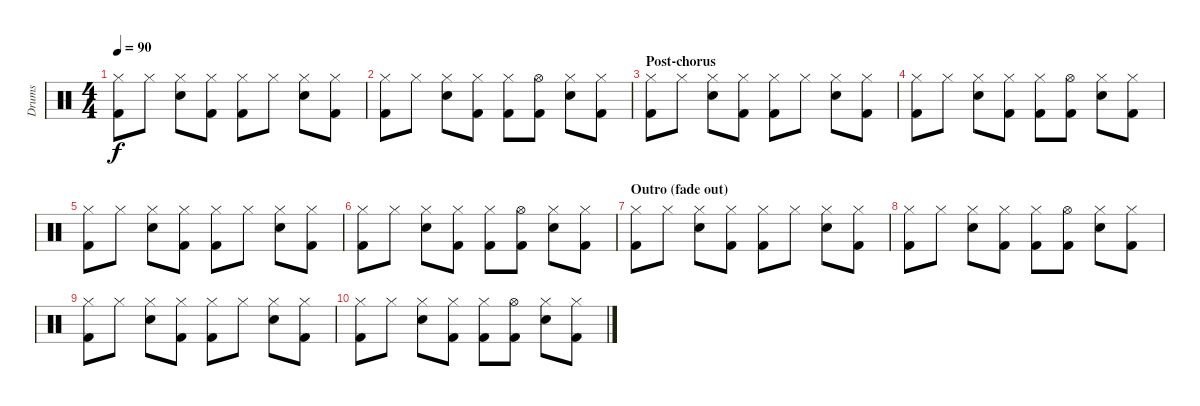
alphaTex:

\track ("Drums" "Drums") {instrument percussion}
\staff {score}
\articulation defaults
\ts (4 4)
\tempo 90
\clef neutral
\ks c
("Hi-Hat (closed)" "Kick (hit) 2").8{dy f} "Hi-Hat (closed)".8 ("Hi-Hat (closed)" "Electric Snare (hit)").8 ("Hi-Hat (closed)" "Kick (hit) 2").8 ("Hi-Hat (closed)" "Kick (hit) 2").8 "Hi-Hat (closed)".8 ("Hi-Hat (closed)" "Electric Snare (hit)").8 ("Hi-Hat (closed)" "Kick (hit) 2").8 |
("Hi-Hat (closed)" "Kick (hit) 2").8 "Hi-Hat (closed)".8 ("Hi-Hat (closed)" "Electric Snare (hit)").8 ("Hi-Hat (closed)" "Kick (hit) 2").8 ("Hi-Hat (closed)" "Kick (hit) 2").8 ("Hi-Hat (open)" "Kick (hit) 2").8 ("Hi-Hat (closed)" "Electric Snare (hit)").8 ("Hi-Hat (closed)" "Kick (hit) 2").8 |
\section ("" "Post-chorus")
("Hi-Hat (closed)" "Kick (hit) 2").8 "Hi-Hat (closed)".8 ("Hi-Hat (closed)" "Electric Snare (hit)").8 ("Hi-Hat (closed)" "Kick (hit) 2").8 ("Hi-Hat (closed)" "Kick (hit) 2").8 "Hi-Hat (closed)".8 ("Hi-Hat (closed)" "Electric Snare (hit)").8 ("Hi-Hat (closed)" "Kick (hit) 2").8 |
("Hi-Hat (closed)" "Kick (hit) 2").8 "Hi-Hat (closed)".8 ("Hi-Hat (closed)" "Electric Snare (hit)").8 ("Hi-Hat (closed)" "Kick (hit) 2").8 ("Hi-Hat (closed)" "Kick (hit) 2").8 ("Hi-Hat (open)" "Kick (hit) 2").8 ("Hi-Hat (closed)" "Electric Snare (hit)").8 ("Hi-Hat (closed)" "Kick (hit) 2").8 |
("Hi-Hat (closed)" "Kick (hit) 2").8 "Hi-Hat (closed)".8 ("Hi-Hat (closed)" "Electric Snare (hit)").8 ("Hi-Hat (closed)" "Kick (hit) 2").8 ("Hi-Hat (closed)" "Kick (hit) 2").8 "Hi-Hat (closed)".8 ("Hi-Hat (closed)" "Electric Snare (hit)").8 ("Hi-Hat (closed)" "Kick (hit) 2").8 |
("Hi-Hat (closed)" "Kick (hit) 2").8 "Hi-Hat (closed)".8 ("Hi-Hat (closed)" "Electric Snare (hit)").8 ("Hi-Hat (closed)" "Kick (hit) 2").8 ("Hi-Hat (closed)" "Kick (hit) 2").8 ("Hi-Hat (open)" "Kick (hit) 2").8 ("Hi-Hat (closed)" "Electric Snare (hit)").8 ("Hi-Hat (closed)" "Kick (hit) 2").8 |
\section ("" "Outro (fade out)")
("Hi-Hat (closed)" "Kick (hit) 2").8 "Hi-Hat (closed)".8 ("Hi-Hat (closed)" "Electric Snare (hit)").8 ("Hi-Hat (closed)" "Kick (hit) 2").8 ("Hi-Hat (closed)" "Kick (hit) 2").8 "Hi-Hat (closed)".8 ("Hi-Hat (closed)" "Electric Snare (hit)").8 ("Hi-Hat (closed)" "Kick (hit) 2").8 |
("Hi-Hat (closed)" "Kick (hit) 2").8 "Hi-Hat (closed)".8 ("Hi-Hat (closed)" "Electric Snare (hit)").8 ("Hi-Hat (closed)" "Kick (hit) 2").8 ("Hi-Hat (closed)" "Kick (hit) 2").8 ("Hi-Hat (open)" "Kick (hit) 2").8 ("Hi-Hat (closed)" "Electric Snare (hit)").8 ("Hi-Hat (closed)" "Kick (hit) 2").8 |
("Hi-Hat (closed)" "Kick (hit) 2").8 "Hi-Hat (closed)".8 ("Hi-Hat (closed)" "Electric Snare (hit)").8 ("Hi-Hat (closed)" "Kick (hit) 2").8 ("Hi-Hat (closed)" "Kick (hit) 2").8 "Hi-Hat (closed)".8 ("Hi-Hat (closed)" "Electric Snare (hit)").8 ("Hi-Hat (closed)" "Kick (hit) 2").8 |
("Hi-Hat (closed)" "Kick (hit) 2").8 "Hi-Hat (closed)".8 ("Hi-Hat (closed)" "Electric Snare (hit)").8 ("Hi-Hat (closed)" "Kick (hit) 2").8 ("Hi-Hat (closed)" "Kick (hit) 2").8 ("Hi-Hat (open)" "Kick (hit) 2").8 ("Hi-Hat (closed)" "Electric Snare (hit)").8 ("Hi-Hat (closed)" "Kick (hit) 2").8
